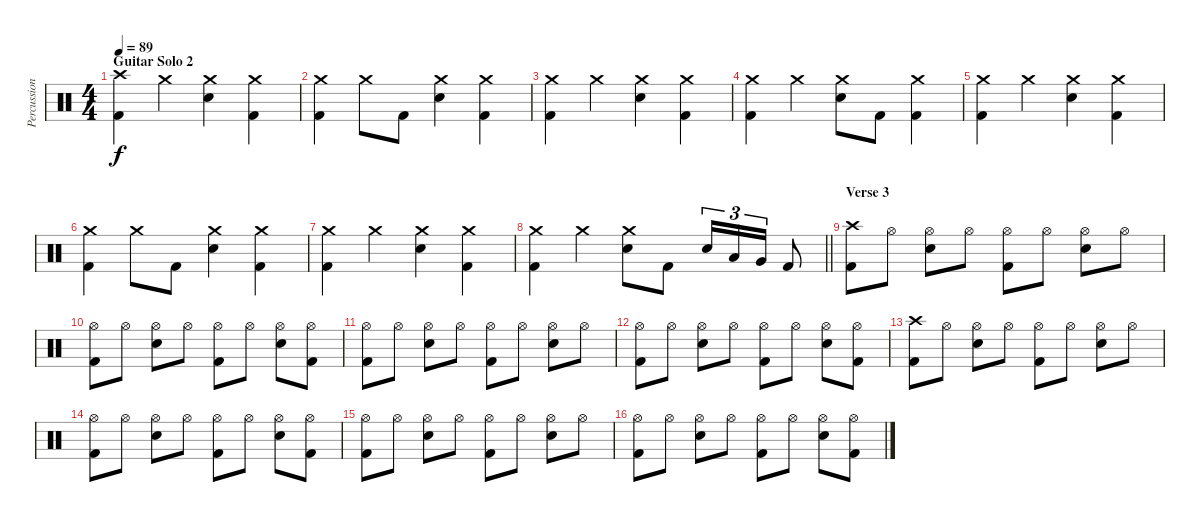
\track ("Percussion" "Percussion") {instrument percussion}
\staff {score}
\articulation defaults
\ts (4 4)
\section ("" "Guitar Solo 2")
\tempo 89
\clef neutral
\ks c
("Crash high (hit)" "Kick (hit) 2").4{dy f} "Crash medium (hit)".4 ("Crash medium (hit)" "Electric Snare (hit)").4 ("Crash medium (hit)" "Kick (hit) 2").4 |
("Crash medium (hit)" "Kick (hit) 2").4 "Crash medium (hit)".8 "Kick (hit) 2".8 ("Crash medium (hit)" "Electric Snare (hit)").4 ("Crash medium (hit)" "Kick (hit) 2").4 |
("Crash medium (hit)" "Kick (hit) 2").4 "Crash medium (hit)".4 ("Crash medium (hit)" "Electric Snare (hit)").4 ("Crash medium (hit)" "Kick (hit) 2").4 |
("Crash medium (hit)" "Kick (hit) 2").4 "Crash medium (hit)".4 ("Crash medium (hit)" "Electric Snare (hit)").8 "Kick (hit) 2".8 ("Crash medium (hit)" "Kick (hit) 2").4 |
("Crash medium (hit)" "Kick (hit) 2").4 "Crash medium (hit)".4 ("Crash medium (hit)" "Electric Snare (hit)").4 ("Crash medium (hit)" "Kick (hit) 2").4 |
("Crash medium (hit)" "Kick (hit) 2").4 "Crash medium (hit)".8 "Kick (hit) 2".8 ("Crash medium (hit)" "Electric Snare (hit)").4 ("Crash medium (hit)" "Kick (hit) 2").4 |
("Crash medium (hit)" "Kick (hit) 2").4 "Crash medium (hit)".4 ("Crash medium (hit)" "Electric Snare (hit)").4 ("Crash medium (hit)" "Kick (hit) 2").4 |
\barLineRight lightlight
("Crash medium (hit)" "Kick (hit) 2").4 "Crash medium (hit)".4 ("Crash medium (hit)" "Electric Snare (hit)").8 "Kick (hit) 2".8 "Electric Snare (hit)".16{tu (3 2)} "Low Tom (hit)".16{tu (3 2)} "Very Low Tom (hit)".16{tu (3 2)} "Kick (hit) 2".8 |
\section ("" "Verse 3")
("Crash high (hit)" "Kick (hit) 2").8 "Hi-Hat (open)".8 ("Hi-Hat (open)" "Electric Snare (hit)").8 "Hi-Hat (open)".8 ("Hi-Hat (open)" "Kick (hit) 2").8 "Hi-Hat (open)".8 ("Hi-Hat (open)" "Electric Snare (hit)").8 "Hi-Hat (open)".8 |
("Hi-Hat (open)" "Kick (hit) 2").8 "Hi-Hat (open)".8 ("Hi-Hat (open)" "Electric Snare (hit)").8 "Hi-Hat (open)".8 ("Hi-Hat (open)" "Kick (hit) 2").8 "Hi-Hat (open)".8 ("Hi-Hat (open)" "Electric Snare (hit)").8 ("Hi-Hat (open)" "Kick (hit) 2").8 |
("Hi-Hat (open)" "Kick (hit) 2").8 "Hi-Hat (open)".8 ("Hi-Hat (open)" "Electric Snare (hit)").8 "Hi-Hat (open)".8 ("Hi-Hat (open)" "Kick (hit) 2").8 "Hi-Hat (open)".8 ("Hi-Hat (open)" "Electric Snare (hit)").8 "Hi-Hat (open)".8 |
("Hi-Hat (open)" "Kick (hit) 2").8 "Hi-Hat (open)".8 ("Hi-Hat (open)" "Electric Snare (hit)").8 "Hi-Hat (open)".8 ("Hi-Hat (open)" "Kick (hit) 2").8 "Hi-Hat (open)".8 ("Hi-Hat (open)" "Electric Snare (hit)").8 ("Hi-Hat (open)" "Kick (hit) 2").8 |
("Crash high (hit)" "Kick (hit) 2").8 "Hi-Hat (open)".8 ("Hi-Hat (open)" "Electric Snare (hit)").8 "Hi-Hat (open)".8 ("Hi-Hat (open)" "Kick (hit) 2").8 "Hi-Hat (open)".8 ("Hi-Hat (open)" "Electric Snare (hit)").8 "Hi-Hat (open)".8 |
("Hi-Hat (open)" "Kick (hit) 2").8 "Hi-Hat (open)".8 ("Hi-Hat (open)" "Electric Snare (hit)").8 "Hi-Hat (open)".8 ("Hi-Hat (open)" "Kick (hit) 2").8 "Hi-Hat (open)".8 ("Hi-Hat (open)" "Electric Snare (hit)").8 ("Hi-Hat (open)" "Kick (hit) 2").8 |
("Hi-Hat (open)" "Kick (hit) 2").8 "Hi-Hat (open)".8 ("Hi-Hat (open)" "Electric Snare (hit)").8 "Hi-Hat (open)".8 ("Hi-Hat (open)" "Kick (hit) 2").8 "Hi-Hat (open)".8 ("Hi-Hat (open)" "Electric Snare (hit)").8 "Hi-Hat (open)".8 |
("Hi-Hat (open)" "Kick (hit) 2").8 "Hi-Hat (open)".8 ("Hi-Hat (open)" "Electric Snare (hit)").8 "Hi-Hat (open)".8 ("Hi-Hat (open)" "Kick (hit) 2").8 "Hi-Hat (open)".8 ("Hi-Hat (open)" "Electric Snare (hit)").8 ("Hi-Hat (open)" "Kick (hit) 2").8
